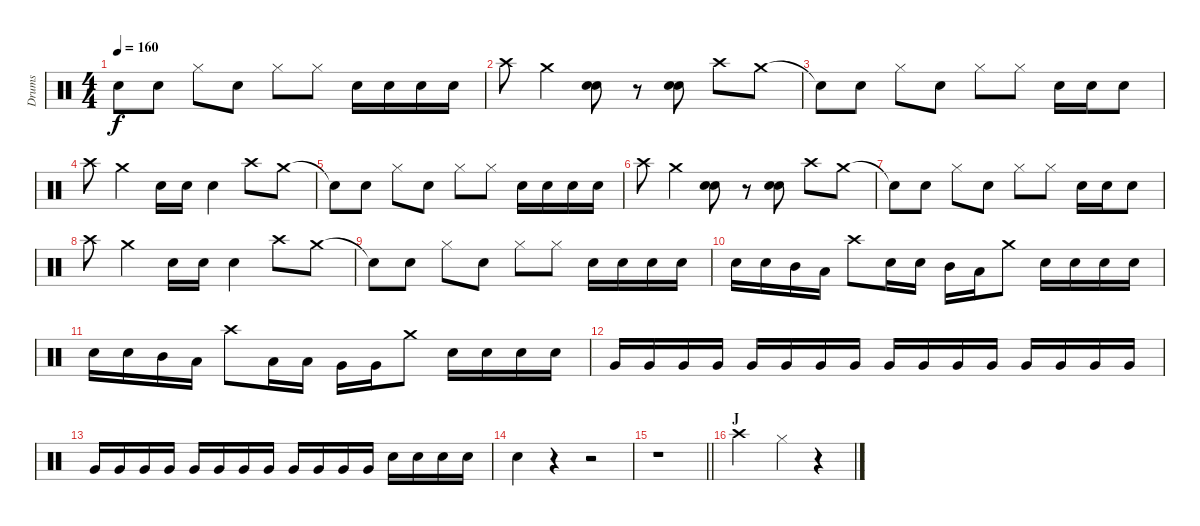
\track ("Drums" "Drums") {instrument percussion}
\staff {score}
\articulation defaults
\ts (4 4)
\tempo 160
\clef neutral
\ks c "Snare (hit)"{t}.8{dy f} "Snare (hit) 2".8 "Hi-Hat (closed)".8 "Snare (hit) 2".8 "Hi-Hat (closed)".8 "Hi-Hat (closed)".8 "Snare (hit) 2".16 "Snare (hit) 2".16 "Snare (hit) 2".16 "Snare (hit) 2".16
|
"Crash high (hit)".8 "Crash medium (hit)".4 ("Snare (hit) 2" "Snare (hit) 2").8 r.8 ("Snare (hit) 2" "Snare (hit) 2").8 "Crash high (hit)".8 "Crash medium (hit)".8 |
"Snare (hit)"{t}.8 "Snare (hit) 2".8 "Hi-Hat (closed)".8 "Snare (hit) 2".8 "Hi-Hat (closed)".8 "Hi-Hat (closed)".8 "Snare (hit) 2".16 "Snare (hit) 2".16 "Snare (hit) 2".8 |
"Crash high (hit)".8 "Crash medium (hit)".4 "Snare (hit) 2".16 "Snare (hit) 2".16 "Snare (hit) 2".4 "Crash high (hit)".8 "Crash medium (hit)".8 |
"Snare (hit)"{t}.8 "Snare (hit) 2".8 "Hi-Hat (closed)".8 "Snare (hit) 2".8 "Hi-Hat (closed)".8 "Hi-Hat (closed)".8 "Snare (hit) 2".16 "Snare (hit) 2".16 "Snare (hit) 2".16 "Snare (hit) 2".16 |
"Crash high (hit)".8 "Crash medium (hit)".4 ("Snare (hit) 2" "Snare (hit) 2").8 r.8 ("Snare (hit) 2" "Snare (hit) 2").8 "Crash high (hit)".8 "Crash medium (hit)".8 |
"Snare (hit)"{t}.8 "Snare (hit) 2".8 "Hi-Hat (closed)".8 "Snare (hit) 2".8 "Hi-Hat (closed)".8 "Hi-Hat (closed)".8 "Snare (hit) 2".16 "Snare (hit) 2".16 "Snare (hit) 2".8 |
"Crash high (hit)".8 "Crash medium (hit)".4 "Snare (hit) 2".16 "Snare (hit) 2".16 "Snare (hit) 2".4 "Crash high (hit)".8 "Crash medium (hit)".8 |
"Snare (hit)"{t}.8 "Snare (hit) 2".8 "Hi-Hat (closed)".8 "Snare (hit) 2".8 "Hi-Hat (closed)".8 "Hi-Hat (closed)".8 "Snare (hit) 2".16 "Snare (hit) 2".16 "Snare (hit) 2".16 "Snare (hit) 2".16 |
"Snare (hit) 2".16 "Snare (hit) 2".16 "Mid Tom (hit)".16 "Low Tom (hit)".16 "Crash high (hit)".8 "Snare (hit) 2".16 "Snare (hit) 2".16 "Mid Tom (hit)".16 "Low Tom (hit)".16 "Crash medium (hit)".8 "Snare (hit) 2".16 "Snare (hit) 2".16 "Snare (hit) 2".16 "Snare (hit) 2".16 |
"Snare (hit) 2".16 "Snare (hit) 2".16 "Mid Tom (hit)".16 "Low Tom (hit)".16 "Crash high (hit)".8 "Low Tom (hit)".16 "Low Tom (hit)".16 "Very Low Tom (hit)".16 "Very Low Tom (hit)".16 "Crash medium (hit)".8 "Snare (hit) 2".16 "Snare (hit) 2".16 "Snare (hit) 2".16 "Snare (hit) 2".16 |
"Very Low Tom (hit)".16 "Very Low Tom (hit)".16 "Very Low Tom (hit)".16 "Very Low Tom (hit)".16 "Very Low Tom (hit)".16 "Very Low Tom (hit)".16 "Very Low Tom (hit)".16 "Very Low Tom (hit)".16 "Very Low Tom (hit)".16 "Very Low Tom (hit)".16 "Very Low Tom (hit)".16 "Very Low Tom (hit)".16 "Very Low Tom (hit)".16 "Very Low Tom (hit)".16 "Very Low Tom (hit)".16 "Very Low Tom (hit)".16 |
"Very Low Tom (hit)".16 "Very Low Tom (hit)".16 "Very Low Tom (hit)".16 "Very Low Tom (hit)".16 "Very Low Tom (hit)".16 "Very Low Tom (hit)".16 "Very Low Tom (hit)".16 "Very Low Tom (hit)".16 "Very Low Tom (hit)".16 "Very Low Tom (hit)".16 "Very Low Tom (hit)".16 "Very Low Tom (hit)".16 "Snare (hit) 2".16 "Snare (hit) 2".16 "Snare (hit) 2".16 "Snare (hit) 2".16 |
"Snare (hit) 2".4 r.4 r.2 |
\barLineRight lightlight
r.1 |
\section ("" "J")
"Crash high (hit)".2 "Hi-Hat (closed)".4 r.4
